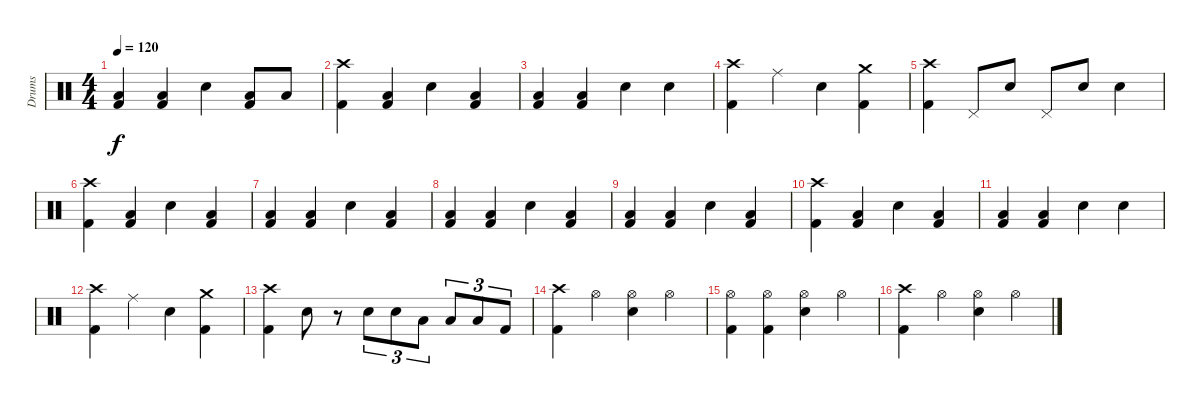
\track ("Drums" "Drums") {instrument percussion}
\staff {score}
\articulation defaults
\ts (4 4)
\tempo 120
\clef neutral
\ks c
("Low Floor Tom (hit)" "Kick (hit) 2").4{dy f} ("Low Floor Tom (hit)" "Kick (hit) 2").4 "Snare (hit) 2".4 ("Low Tom (hit)" "Kick (hit) 2").8 "Low Floor Tom (hit)".8 |
("Kick (hit) 2" "Crash high (hit)").4 ("Kick (hit) 2" "Low Floor Tom (hit)").4 "Snare (hit) 2".4 ("Low Floor Tom (hit)" "Kick (hit) 2").4 |
("Low Floor Tom (hit)" "Kick (hit) 2").4 ("Low Floor Tom (hit)" "Kick (hit) 2").4 "Snare (hit) 2".4 "Snare (hit) 2".4 |
("Kick (hit) 2" "Crash high (hit)").4 "Ride (middle)".4 "Snare (hit) 2".4 ("Kick (hit) 2" "Crash medium (hit)").4 |
("Crash high (hit)" "Kick (hit) 2").4 "Pedal Hi-Hat (hit)".8 "Snare (hit) 2".8 "Pedal Hi-Hat (hit)".8 "Snare (hit) 2".8 "Snare (hit) 2".4 |
("Kick (hit) 2" "Crash high (hit)").4 ("Kick (hit) 2" "Low Floor Tom (hit)").4 "Snare (hit) 2".4 ("Low Floor Tom (hit)" "Kick (hit) 2").4 |
("Low Floor Tom (hit)" "Kick (hit) 2").4 ("Low Floor Tom (hit)" "Kick (hit) 2").4 "Snare (hit) 2".4 ("Low Floor Tom (hit)" "Kick (hit) 2").4 |
("Kick (hit) 2" "Low Floor Tom (hit)").4 ("Kick (hit) 2" "Low Floor Tom (hit)").4 "Snare (hit) 2".4 ("Low Floor Tom (hit)" "Kick (hit) 2").4 |
("Low Floor Tom (hit)" "Kick (hit) 2").4 ("Low Floor Tom (hit)" "Kick (hit) 2").4 "Snare (hit) 2".4 ("Low Floor Tom (hit)" "Kick (hit) 2").4 |
("Kick (hit) 2" "Crash high (hit)").4 ("Kick (hit) 2" "Low Floor Tom (hit)").4 "Snare (hit) 2".4 ("Low Floor Tom (hit)" "Kick (hit) 2").4 |
("Low Floor Tom (hit)" "Kick (hit) 2").4 ("Low Floor Tom (hit)" "Kick (hit) 2").4 "Snare (hit) 2".4 "Snare (hit) 2".4 |
("Kick (hit) 2" "Crash high (hit)").4 "Ride (middle)".4 "Snare (hit) 2".4 ("Kick (hit) 2" "Crash medium (hit)").4 |
("Crash high (hit)" "Kick (hit) 2").4 "Snare (hit) 2".8 r.8 "Snare (hit) 2".8{tu (3 2)} "Snare (hit) 2".8{tu (3 2)} "Low Tom (hit)".8{tu (3 2)} "Low Tom (hit)".8{tu (3 2)} "Low Floor Tom (hit)".8{tu (3 2)} "Kick (hit) 2".8{tu (3 2)} |
("Crash high (hit)" "Kick (hit) 2").4 "Hi-Hat (open)".4 ("Hi-Hat (open)" "Snare (hit) 2").4 "Hi-Hat (open)".4 |
("Hi-Hat (open)" "Kick (hit) 2").4 ("Hi-Hat (open)" "Kick (hit) 2").4 ("Hi-Hat (open)" "Snare (hit) 2").4 "Hi-Hat (open)".4 |
("Crash high (hit)" "Kick (hit) 2").4 "Hi-Hat (open)".4 ("Hi-Hat (open)" "Snare (hit) 2").4 "Hi-Hat (open)".4
